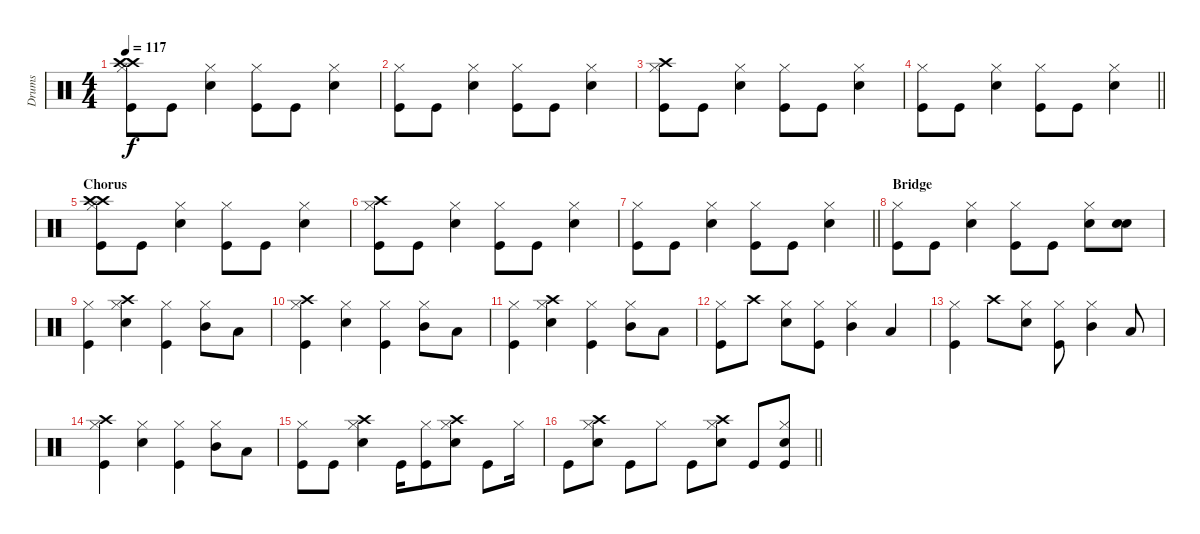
\track ("Drums" "Drums") {instrument percussion}
\staff {score}
\articulation defaults
\ts (4 4)
\tempo 117
\clef neutral
\ks c
("Crash high (hit)" "Kick (hit)" "Hi-Hat (closed)" "Crash high (hit)").8{dy f} "Kick (hit)".8 ("Electric Snare (hit)" "Hi-Hat (closed)").4 ("Kick (hit)" "Hi-Hat (closed)").8 "Kick (hit)".8 ("Electric Snare (hit)" "Hi-Hat (closed)").4 |
("Kick (hit)" "Hi-Hat (closed)").8 "Kick (hit)".8 ("Electric Snare (hit)" "Hi-Hat (closed)").4 ("Kick (hit)" "Hi-Hat (closed)").8 "Kick (hit)".8 ("Electric Snare (hit)" "Hi-Hat (closed)").4 |
("Crash high (hit)" "Kick (hit)" "Hi-Hat (closed)").8 "Kick (hit)".8 ("Electric Snare (hit)" "Hi-Hat (closed)").4 ("Kick (hit)" "Hi-Hat (closed)").8 "Kick (hit)".8 ("Electric Snare (hit)" "Hi-Hat (closed)").4 |
\barLineRight lightlight
("Kick (hit)" "Hi-Hat (closed)").8 "Kick (hit)".8 ("Electric Snare (hit)" "Hi-Hat (closed)").4 ("Kick (hit)" "Hi-Hat (closed)").8 "Kick (hit)".8 ("Electric Snare (hit)" "Hi-Hat (closed)").4 |
\section ("" "Chorus")
("Crash high (hit)" "Crash high (hit)" "Kick (hit)" "Hi-Hat (closed)").8 "Kick (hit)".8 ("Electric Snare (hit)" "Hi-Hat (closed)").4 ("Kick (hit)" "Hi-Hat (closed)").8 "Kick (hit)".8 ("Electric Snare (hit)" "Hi-Hat (closed)").4 |
("Crash high (hit)" "Kick (hit)" "Hi-Hat (closed)").8 "Kick (hit)".8 ("Electric Snare (hit)" "Hi-Hat (closed)").4 ("Kick (hit)" "Hi-Hat (closed)").8 "Kick (hit)".8 ("Electric Snare (hit)" "Hi-Hat (closed)").4 |
\barLineRight lightlight
("Kick (hit)" "Hi-Hat (closed)").8 "Kick (hit)".8 ("Electric Snare (hit)" "Hi-Hat (closed)").4 ("Kick (hit)" "Hi-Hat (closed)").8 "Kick (hit)".8 ("Electric Snare (hit)" "Hi-Hat (closed)").4 |
\section ("" "Bridge")
("Kick (hit)" "Hi-Hat (closed)").8 "Kick (hit)".8 ("Electric Snare (hit)" "Hi-Hat (closed)").4 ("Kick (hit)" "Hi-Hat (closed)").8 "Kick (hit)".8 ("Electric Snare (hit)" "Hi-Hat (closed)").8 ("Electric Snare (hit)" "Electric Snare (hit)").8 |
("Kick (hit)" "Hi-Hat (closed)").4 ("Electric Snare (hit)" "Hi-Hat (closed)" "Crash high (hit)").4 ("Kick (hit)" "Hi-Hat (closed)").4 ("Hi-Hat (closed)" "Mid Tom (hit)").8 "Low Tom (hit)".8 |
("Kick (hit)" "Hi-Hat (closed)" "Crash high (hit)").4 ("Electric Snare (hit)" "Hi-Hat (closed)").4 ("Kick (hit)" "Hi-Hat (closed)").4 ("Hi-Hat (closed)" "Mid Tom (hit)").8 "Low Tom (hit)".8 |
("Kick (hit)" "Hi-Hat (closed)").4 ("Crash high (hit)" "Electric Snare (hit)" "Hi-Hat (closed)").4 ("Kick (hit)" "Hi-Hat (closed)").4 ("Hi-Hat (closed)" "Mid Tom (hit)").8 "Low Tom (hit)".8 |
("Kick (hit)" "Hi-Hat (closed)").8 "Crash high (hit)".8 ("Electric Snare (hit)" "Hi-Hat (closed)").8 ("Kick (hit)" "Hi-Hat (closed)").8 ("Hi-Hat (closed)" "Mid Tom (hit)").4 "Low Tom (hit)".4 |
("Kick (hit)" "Hi-Hat (closed)").4 "Crash high (hit)".8 ("Electric Snare (hit)" "Hi-Hat (closed)").8 ("Kick (hit)" "Hi-Hat (closed)").8 ("Hi-Hat (closed)" "Mid Tom (hit)").4 "Low Tom (hit)".8 |
("Kick (hit)" "Hi-Hat (closed)" "Crash high (hit)").4 ("Electric Snare (hit)" "Hi-Hat (closed)").4 ("Kick (hit)" "Hi-Hat (closed)").4 ("Hi-Hat (closed)" "Mid Tom (hit)").8 "Low Tom (hit)".8 |
("Kick (hit)" "Hi-Hat (closed)").8 "Kick (hit)".8 ("Electric Snare (hit)" "Crash high (hit)" "Hi-Hat (closed)").4 "Kick (hit)".16 ("Hi-Hat (closed)" "Kick (hit)").8 ("Crash high (hit)" "Electric Snare (hit)" "Hi-Hat (closed)").8 "Kick (hit)".8 "Hi-Hat (closed)".16 |
\barLineRight lightlight "Kick (hit)".8
("Electric Snare (hit)" "Crash high (hit)" "Hi-Hat (closed)").8 "Kick (hit)".8 "Hi-Hat (closed)".8 "Kick (hit)".8 ("Crash high (hit)" "Electric Snare (hit)" "Hi-Hat (closed)").8 "Kick (hit)".8 ("Electric Snare (hit)" "Kick (hit)" "Hi-Hat (closed)").8
